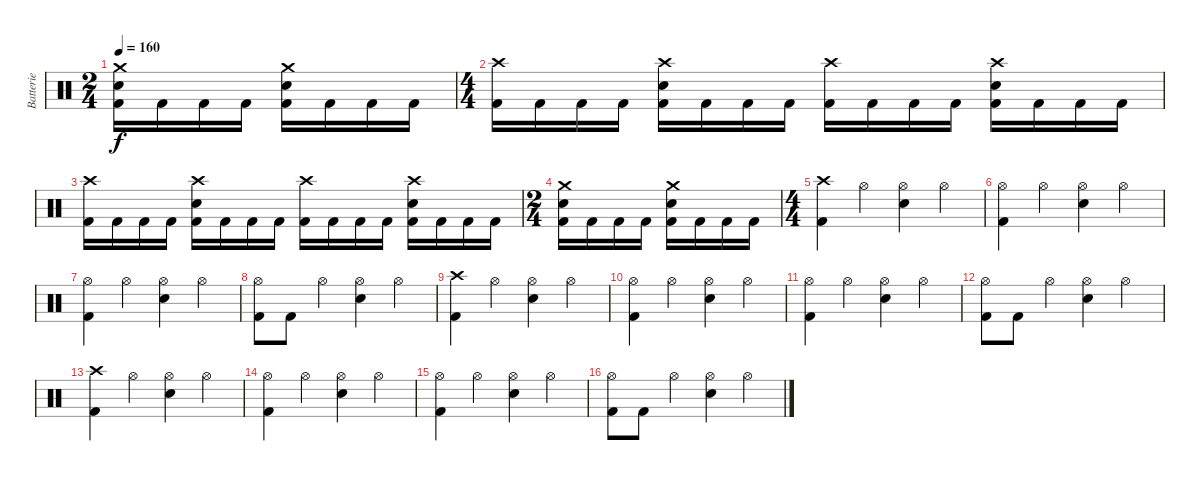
\track ("Batterie" "Batterie") {instrument percussion}
\staff {score}
\articulation defaults
\ts (2 4)
\tempo 160
\clef neutral
\ks c
("Crash medium (hit)" "Electric Snare (hit)" "Kick (hit) 2").16{dy f} "Kick (hit) 2".16 "Kick (hit) 2".16 "Kick (hit) 2".16 ("Crash medium (hit)" "Electric Snare (hit)" "Kick (hit) 2").16 "Kick (hit) 2".16 "Kick (hit) 2".16 "Kick (hit) 2".16 |
\ts (4 4)
("Crash high (hit)" "Kick (hit) 2").16 "Kick (hit) 2".16 "Kick (hit) 2".16 "Kick (hit) 2".16 ("Crash high (hit)" "Electric Snare (hit)" "Kick (hit) 2").16 "Kick (hit) 2".16 "Kick (hit) 2".16 "Kick (hit) 2".16 ("Crash high (hit)" "Kick (hit) 2").16 "Kick (hit) 2".16 "Kick (hit) 2".16 "Kick (hit) 2".16 ("Crash high (hit)" "Electric Snare (hit)" "Kick (hit) 2").16 "Kick (hit) 2".16 "Kick (hit) 2".16 "Kick (hit) 2".16 |
("Crash high (hit)" "Kick (hit) 2").16 "Kick (hit) 2".16 "Kick (hit) 2".16 "Kick (hit) 2".16 ("Crash high (hit)" "Electric Snare (hit)" "Kick (hit) 2").16 "Kick (hit) 2".16 "Kick (hit) 2".16 "Kick (hit) 2".16 ("Crash high (hit)" "Kick (hit) 2").16 "Kick (hit) 2".16 "Kick (hit) 2".16 "Kick (hit) 2".16 ("Crash high (hit)" "Electric Snare (hit)" "Kick (hit) 2").16 "Kick (hit) 2".16 "Kick (hit) 2".16 "Kick (hit) 2".16 |
\ts (2 4)
("Crash medium (hit)" "Electric Snare (hit)" "Kick (hit) 2").16 "Kick (hit) 2".16 "Kick (hit) 2".16 "Kick (hit) 2".16 ("Crash medium (hit)" "Electric Snare (hit)" "Kick (hit) 2").16 "Kick (hit) 2".16 "Kick (hit) 2".16 "Kick (hit) 2".16 |
\ts (4 4)
("Crash high (hit)" "Kick (hit) 2").4 "Hi-Hat (open)".4 ("Hi-Hat (open)" "Electric Snare (hit)").4 "Hi-Hat (open)".4 |
("Hi-Hat (open)" "Kick (hit) 2").4 "Hi-Hat (open)".4 ("Hi-Hat (open)" "Electric Snare (hit)").4 "Hi-Hat (open)".4 |
("Hi-Hat (open)" "Kick (hit) 2").4 "Hi-Hat (open)".4 ("Hi-Hat (open)" "Electric Snare (hit)").4 "Hi-Hat (open)".4 |
("Hi-Hat (open)" "Kick (hit) 2").8 "Kick (hit) 2".8 "Hi-Hat (open)".4 ("Hi-Hat (open)" "Electric Snare (hit)").4 "Hi-Hat (open)".4 |
("Crash high (hit)" "Kick (hit) 2").4 "Hi-Hat (open)".4 ("Hi-Hat (open)" "Electric Snare (hit)").4 "Hi-Hat (open)".4 |
("Hi-Hat (open)" "Kick (hit) 2").4 "Hi-Hat (open)".4 ("Hi-Hat (open)" "Electric Snare (hit)").4 "Hi-Hat (open)".4 |
("Hi-Hat (open)" "Kick (hit) 2").4 "Hi-Hat (open)".4 ("Hi-Hat (open)" "Electric Snare (hit)").4 "Hi-Hat (open)".4 |
("Hi-Hat (open)" "Kick (hit) 2").8 "Kick (hit) 2".8 "Hi-Hat (open)".4 ("Hi-Hat (open)" "Electric Snare (hit)").4 "Hi-Hat (open)".4 |
("Crash high (hit)" "Kick (hit) 2").4 "Hi-Hat (open)".4 ("Hi-Hat (open)" "Electric Snare (hit)").4 "Hi-Hat (open)".4 |
("Hi-Hat (open)" "Kick (hit) 2").4 "Hi-Hat (open)".4 ("Hi-Hat (open)" "Electric Snare (hit)").4 "Hi-Hat (open)".4 |
("Hi-Hat (open)" "Kick (hit) 2").4 "Hi-Hat (open)".4 ("Hi-Hat (open)" "Electric Snare (hit)").4 "Hi-Hat (open)".4 |
("Hi-Hat (open)" "Kick (hit) 2").8 "Kick (hit) 2".8 "Hi-Hat (open)".4 ("Hi-Hat (open)" "Electric Snare (hit)").4 "Hi-Hat (open)".4
